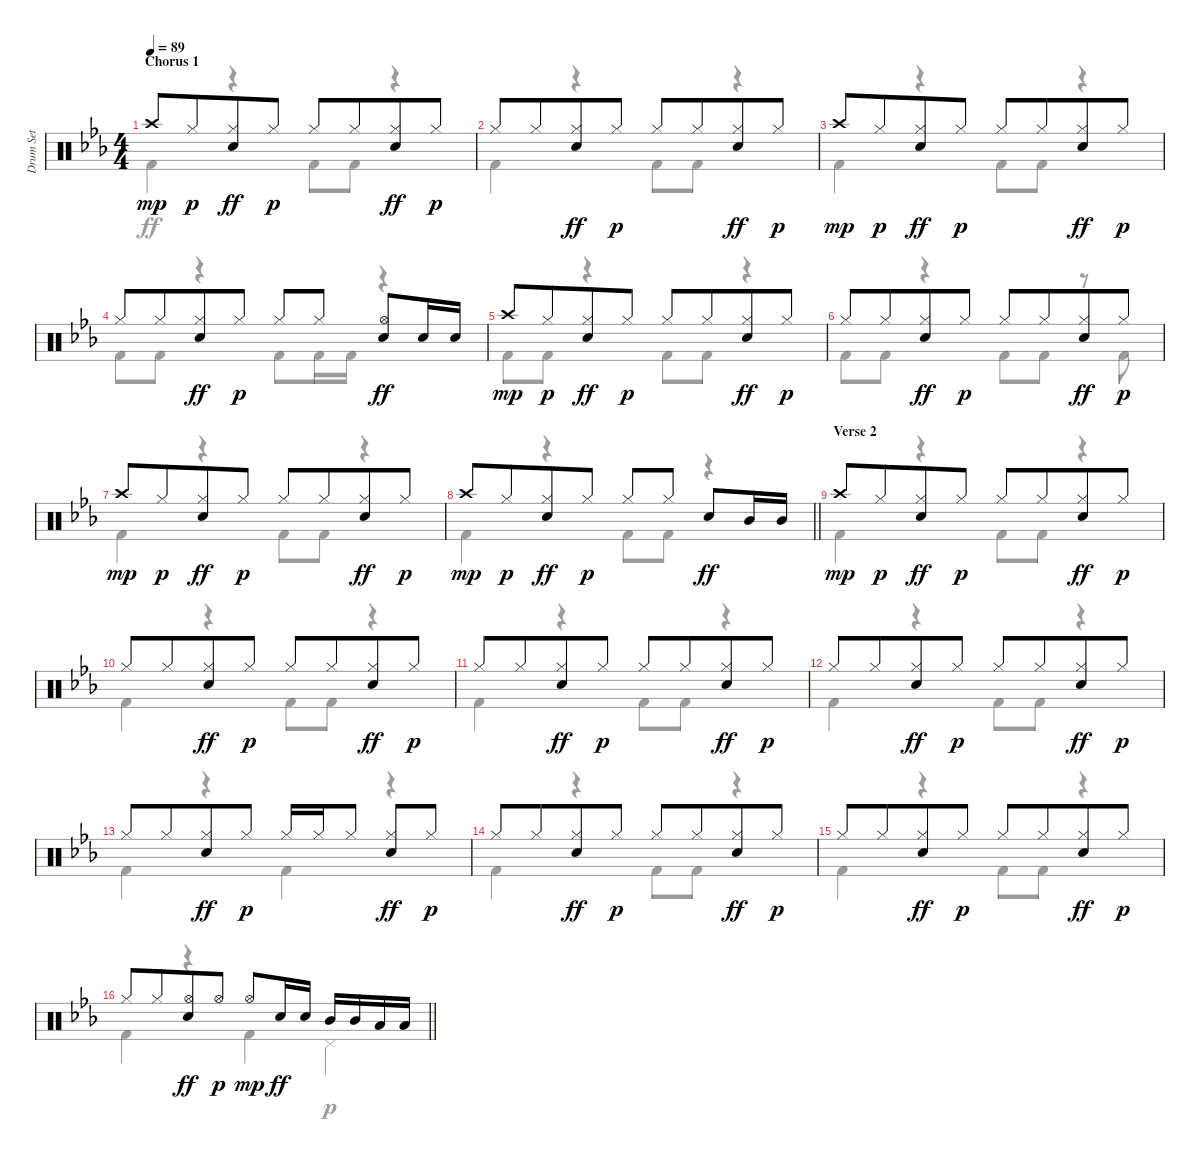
\track ("Drum Set" "Drum Set") {instrument percussion}
\staff {score}
\articulation defaults
\voice
\ts (4 4)
\section ("" "Chorus 1")
\tempo 89
\clef neutral
\ks eb "Crash high (hit)".8{dy mp} "Hi-Hat (closed)".8{dy p beam merge}
("Hi-Hat (closed)" "Electric Snare (hit)").8{dy ff} "Hi-Hat (closed)".8{dy p} "Hi-Hat (closed)".8 "Hi-Hat (closed)".8{beam merge} ("Hi-Hat (closed)" "Electric Snare (hit)").8{dy ff} "Hi-Hat (closed)".8{dy p} |
"Hi-Hat (closed)".8 "Hi-Hat (closed)".8{beam merge} ("Hi-Hat (closed)" "Electric Snare (hit)").8{dy ff} "Hi-Hat (closed)".8{dy p} "Hi-Hat (closed)".8 "Hi-Hat (closed)".8{beam merge} ("Hi-Hat (closed)" "Electric Snare (hit)").8{dy ff} "Hi-Hat (closed)".8{dy p} |
"Crash high (hit)".8{dy mp} "Hi-Hat (closed)".8{dy p beam merge} ("Hi-Hat (closed)" "Electric Snare (hit)").8{dy ff} "Hi-Hat (closed)".8{dy p} "Hi-Hat (closed)".8 "Hi-Hat (closed)".8{beam merge} ("Hi-Hat (closed)" "Electric Snare (hit)").8{dy ff} "Hi-Hat (closed)".8{dy p} |
"Hi-Hat (closed)".8 "Hi-Hat (closed)".8{beam merge} ("Hi-Hat (closed)" "Electric Snare (hit)").8{dy ff} "Hi-Hat (closed)".8{dy p} "Hi-Hat (closed)".8 "Hi-Hat (closed)".8{beam split} ("Hi-Hat (open)" "Electric Snare (hit)").8{dy ff} "Electric Snare (hit)".16 "Electric Snare (hit)".16 |
"Crash high (hit)".8{dy mp} "Hi-Hat (closed)".8{dy p beam merge} ("Hi-Hat (closed)" "Electric Snare (hit)").8{dy ff} "Hi-Hat (closed)".8{dy p} "Hi-Hat (closed)".8 "Hi-Hat (closed)".8{beam merge} ("Hi-Hat (closed)" "Electric Snare (hit)").8{dy ff} "Hi-Hat (closed)".8{dy p} |
"Hi-Hat (closed)".8 "Hi-Hat (closed)".8{beam merge} ("Hi-Hat (closed)" "Electric Snare (hit)").8{dy ff} "Hi-Hat (closed)".8{dy p} "Hi-Hat (closed)".8 "Hi-Hat (closed)".8{beam merge} ("Hi-Hat (closed)" "Electric Snare (hit)").8{dy ff} "Hi-Hat (closed)".8{dy p} |
"Crash high (hit)".8{dy mp} "Hi-Hat (closed)".8{dy p beam merge} ("Hi-Hat (closed)" "Electric Snare (hit)").8{dy ff} "Hi-Hat (closed)".8{dy p} "Hi-Hat (closed)".8 "Hi-Hat (closed)".8{beam merge} ("Hi-Hat (closed)" "Electric Snare (hit)").8{dy ff} "Hi-Hat (closed)".8{dy p} |
\barLineRight lightlight "Crash high (hit)".8{dy mp} "Hi-Hat (closed)".8{dy p beam merge}
("Hi-Hat (closed)" "Electric Snare (hit)").8{dy ff} "Hi-Hat (closed)".8{dy p} "Hi-Hat (closed)".8 "Hi-Hat (closed)".8 "Electric Snare (hit)".8{dy ff} "Mid Tom (hit)".16 "Mid Tom (hit)".16 |
\section ("" "Verse 2")
"Crash high (hit)".8{dy mp} "Hi-Hat (closed)".8{dy p beam merge} ("Hi-Hat (closed)" "Electric Snare (hit)").8{dy ff} "Hi-Hat (closed)".8{dy p} "Hi-Hat (closed)".8 "Hi-Hat (closed)".8{beam merge} ("Hi-Hat (closed)" "Electric Snare (hit)").8{dy ff} "Hi-Hat (closed)".8{dy p} |
"Hi-Hat (closed)".8 "Hi-Hat (closed)".8{beam merge} ("Hi-Hat (closed)" "Electric Snare (hit)").8{dy ff} "Hi-Hat (closed)".8{dy p} "Hi-Hat (closed)".8 "Hi-Hat (closed)".8{beam merge} ("Hi-Hat (closed)" "Electric Snare (hit)").8{dy ff} "Hi-Hat (closed)".8{dy p} |
"Hi-Hat (closed)".8 "Hi-Hat (closed)".8{beam merge} ("Hi-Hat (closed)" "Electric Snare (hit)").8{dy ff} "Hi-Hat (closed)".8{dy p} "Hi-Hat (closed)".8 "Hi-Hat (closed)".8{beam merge} ("Hi-Hat (closed)" "Electric Snare (hit)").8{dy ff} "Hi-Hat (closed)".8{dy p} |
"Hi-Hat (closed)".8 "Hi-Hat (closed)".8{beam merge} ("Hi-Hat (closed)" "Electric Snare (hit)").8{dy ff} "Hi-Hat (closed)".8{dy p} "Hi-Hat (closed)".8 "Hi-Hat (closed)".8{beam merge} ("Hi-Hat (closed)" "Electric Snare (hit)").8{dy ff} "Hi-Hat (closed)".8{dy p} |
"Hi-Hat (closed)".8 "Hi-Hat (closed)".8{beam merge} ("Hi-Hat (closed)" "Electric Snare (hit)").8{dy ff} "Hi-Hat (closed)".8{dy p} "Hi-Hat (closed)".16 "Hi-Hat (closed)".16 "Hi-Hat (closed)".8{beam split} ("Hi-Hat (closed)" "Electric Snare (hit)").8{dy ff} "Hi-Hat (closed)".8{dy p} |
"Hi-Hat (closed)".8 "Hi-Hat (closed)".8{beam merge} ("Hi-Hat (closed)" "Electric Snare (hit)").8{dy ff} "Hi-Hat (closed)".8{dy p} "Hi-Hat (closed)".8 "Hi-Hat (closed)".8{beam merge} ("Hi-Hat (closed)" "Electric Snare (hit)").8{dy ff} "Hi-Hat (closed)".8{dy p} |
"Hi-Hat (closed)".8 "Hi-Hat (closed)".8{beam merge} ("Hi-Hat (closed)" "Electric Snare (hit)").8{dy ff} "Hi-Hat (closed)".8{dy p} "Hi-Hat (closed)".8 "Hi-Hat (closed)".8{beam merge} ("Hi-Hat (closed)" "Electric Snare (hit)").8{dy ff} "Hi-Hat (closed)".8{dy p} |
\barLineRight lightlight "Hi-Hat (closed)".8 "Hi-Hat (closed)".8{beam merge}
("Hi-Hat (open)" "Electric Snare (hit)").8{dy ff} "Hi-Hat (open)".8{dy p} "Hi-Hat (open)".8{dy mp} "Electric Snare (hit)".16{dy ff} "Electric Snare (hit)".16 "Mid Tom (hit)".16 "Mid Tom (hit)".16 "Low Tom (hit)".16 "Low Tom (hit)".16
\voice
\clef neutral
\ottava regular
\simile none
\ks eb "Kick (hit) 2".4{dy ff}
r.4 "Kick (hit) 2".8 "Kick (hit) 2".8 r.4 |
"Kick (hit) 2".4 r.4 "Kick (hit) 2".8 "Kick (hit) 2".8 r.4 |
"Kick (hit) 2".4 r.4 "Kick (hit) 2".8 "Kick (hit) 2".8 r.4 |
"Kick (hit) 2".8 "Kick (hit) 2".8 r.4 "Kick (hit) 2".8 "Kick (hit) 2".16 "Kick (hit) 2".16 r.4 |
"Kick (hit) 2".8 "Kick (hit) 2".8 r.4 "Kick (hit) 2".8 "Kick (hit) 2".8 r.4 |
"Kick (hit) 2".8 "Kick (hit) 2".8 r.4 "Kick (hit) 2".8 "Kick (hit) 2".8 r.8 "Kick (hit) 2".8 |
"Kick (hit) 2".4 r.4 "Kick (hit) 2".8 "Kick (hit) 2".8 r.4 |
\barLineRight lightlight "Kick (hit) 2".4
r.4 "Kick (hit) 2".8 "Kick (hit) 2".8 r.4 |
"Kick (hit) 2".4 r.4 "Kick (hit) 2".8 "Kick (hit) 2".8 r.4 |
"Kick (hit) 2".4 r.4 "Kick (hit) 2".8 "Kick (hit) 2".8 r.4 |
"Kick (hit) 2".4 r.4 "Kick (hit) 2".8 "Kick (hit) 2".8 r.4 |
"Kick (hit) 2".4 r.4 "Kick (hit) 2".8 "Kick (hit) 2".8 r.4 |
"Kick (hit) 2".4 r.4 "Kick (hit) 2".4 r.4 |
"Kick (hit) 2".4 r.4 "Kick (hit) 2".8 "Kick (hit) 2".8 r.4 |
"Kick (hit) 2".4 r.4 "Kick (hit) 2".8 "Kick (hit) 2".8 r.4 |
\barLineRight lightlight "Kick (hit) 2".4
r.4 "Kick (hit) 2".4 "Pedal Hi-Hat (hit)".4{dy p}
